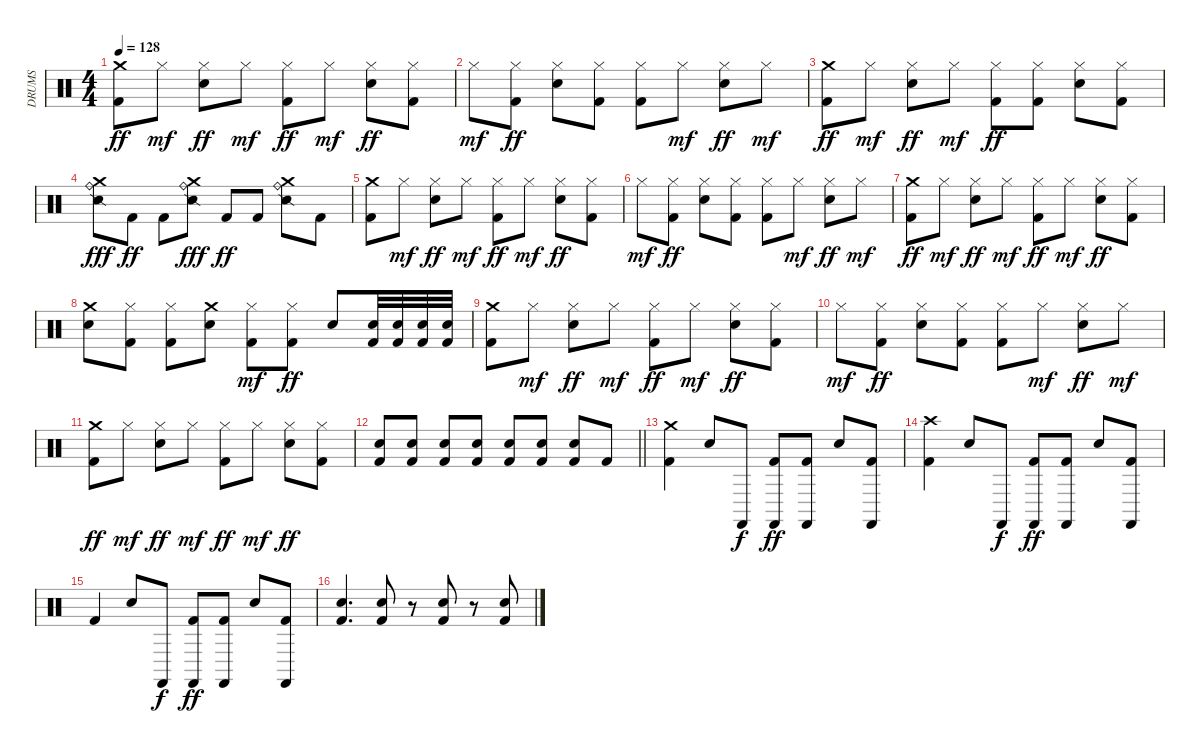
\track ("DRUMS" "DRUMS") {instrument percussion}
\staff {score}
\articulation defaults
\ts (4 4)
\tempo 128
\clef neutral
\ks c
("Crash medium (hit)" "Kick (hit) 2").8{dy ff} "Hi-Hat (closed)".8{dy mf} ("Hi-Hat (closed)" "Snare (hit) 2").8{dy ff} "Hi-Hat (closed)".8{dy mf} ("Hi-Hat (closed)" "Kick (hit) 2").8{dy ff} "Hi-Hat (closed)".8{dy mf} ("Hi-Hat (closed)" "Snare (hit) 2").8{dy ff} ("Hi-Hat (closed)" "Kick (hit) 2").8 |
"Hi-Hat (closed)".8{dy mf} ("Hi-Hat (closed)" "Kick (hit) 2").8{dy ff} ("Hi-Hat (closed)" "Snare (hit) 2").8 ("Hi-Hat (closed)" "Kick (hit) 2").8 ("Hi-Hat (closed)" "Kick (hit) 2").8 "Hi-Hat (closed)".8{dy mf} ("Hi-Hat (closed)" "Snare (hit) 2").8{dy ff} "Hi-Hat (closed)".8{dy mf} |
("Crash medium (hit)" "Kick (hit) 2").8{dy ff} "Hi-Hat (closed)".8{dy mf} ("Hi-Hat (closed)" "Snare (hit) 2").8{dy ff} "Hi-Hat (closed)".8{dy mf} ("Hi-Hat (closed)" "Kick (hit) 2").8{dy ff} ("Hi-Hat (closed)" "Kick (hit) 2").8 ("Hi-Hat (closed)" "Snare (hit) 2").8 ("Hi-Hat (closed)" "Kick (hit) 2").8 |
("Crash medium (hit)" "Ride (bell)" "Snare (side stick) 2").8{dy fff} "Kick (hit) 2".8{dy ff} "Kick (hit) 2".8 ("Crash medium (hit)" "Ride (bell)" "Snare (side stick) 2").8{dy fff} "Kick (hit) 2".8{dy ff} "Kick (hit) 2".8 ("Crash medium (hit)" "Ride (bell)" "Snare (side stick) 2").8 "Kick (hit) 2".8 |
("Crash medium (hit)" "Kick (hit) 2").8 "Hi-Hat (closed)".8{dy mf} ("Hi-Hat (closed)" "Snare (hit) 2").8{dy ff} "Hi-Hat (closed)".8{dy mf} ("Hi-Hat (closed)" "Kick (hit) 2").8{dy ff} "Hi-Hat (closed)".8{dy mf} ("Hi-Hat (closed)" "Snare (hit) 2").8{dy ff} ("Hi-Hat (closed)" "Kick (hit) 2").8 |
"Hi-Hat (closed)".8{dy mf} ("Hi-Hat (closed)" "Kick (hit) 2").8{dy ff} ("Hi-Hat (closed)" "Snare (hit) 2").8 ("Hi-Hat (closed)" "Kick (hit) 2").8 ("Hi-Hat (closed)" "Kick (hit) 2").8 "Hi-Hat (closed)".8{dy mf} ("Hi-Hat (closed)" "Snare (hit) 2").8{dy ff} "Hi-Hat (closed)".8{dy mf} |
("Crash medium (hit)" "Kick (hit) 2").8{dy ff} "Hi-Hat (closed)".8{dy mf} ("Hi-Hat (closed)" "Snare (hit) 2").8{dy ff} "Hi-Hat (closed)".8{dy mf} ("Hi-Hat (closed)" "Kick (hit) 2").8{dy ff} "Hi-Hat (closed)".8{dy mf} ("Hi-Hat (closed)" "Snare (hit) 2").8{dy ff} ("Hi-Hat (closed)" "Kick (hit) 2").8 |
("Crash medium (hit)" "Snare (hit) 2").8 ("Hi-Hat (closed)" "Kick (hit) 2").8 ("Hi-Hat (closed)" "Kick (hit) 2").8 ("Crash medium (hit)" "Snare (hit) 2").8 ("Hi-Hat (closed)" "Kick (hit) 2").8{dy mf} ("Hi-Hat (closed)" "Kick (hit) 2").8{dy ff} "Snare (hit) 2".8 ("Snare (hit) 2" "Kick (hit) 2").32 ("Snare (hit) 2" "Kick (hit) 2").32 ("Snare (hit) 2" "Kick (hit) 2").32 ("Snare (hit) 2" "Kick (hit) 2").32 |
("Crash medium (hit)" "Kick (hit) 2").8 "Hi-Hat (closed)".8{dy mf} ("Hi-Hat (closed)" "Snare (hit) 2").8{dy ff} "Hi-Hat (closed)".8{dy mf} ("Hi-Hat (closed)" "Kick (hit) 2").8{dy ff} "Hi-Hat (closed)".8{dy mf} ("Hi-Hat (closed)" "Snare (hit) 2").8{dy ff} ("Hi-Hat (closed)" "Kick (hit) 2").8 |
"Hi-Hat (closed)".8{dy mf} ("Hi-Hat (closed)" "Kick (hit) 2").8{dy ff} ("Hi-Hat (closed)" "Snare (hit) 2").8 ("Hi-Hat (closed)" "Kick (hit) 2").8 ("Hi-Hat (closed)" "Kick (hit) 2").8 "Hi-Hat (closed)".8{dy mf} ("Hi-Hat (closed)" "Snare (hit) 2").8{dy ff} "Hi-Hat (closed)".8{dy mf} |
("Crash medium (hit)" "Kick (hit) 2").8{dy ff} "Hi-Hat (closed)".8{dy mf} ("Hi-Hat (closed)" "Snare (hit) 2").8{dy ff} "Hi-Hat (closed)".8{dy mf} ("Hi-Hat (closed)" "Kick (hit) 2").8{dy ff} "Hi-Hat (closed)".8{dy mf} ("Hi-Hat (closed)" "Snare (hit) 2").8{dy ff} ("Hi-Hat (closed)" "Kick (hit) 2").8 |
\barLineRight lightlight
("Snare (hit) 2" "Kick (hit) 2").8 ("Snare (hit) 2" "Kick (hit) 2").8 ("Snare (hit) 2" "Kick (hit) 2").8 ("Snare (hit) 2" "Kick (hit) 2").8 ("Snare (hit) 2" "Kick (hit) 2").8 ("Snare (hit) 2" "Kick (hit) 2").8 ("Snare (hit) 2" "Kick (hit) 2").8 "Kick (hit) 2".8 |
("Crash medium (hit)" "Kick (hit) 2").4 "Snare (hit) 2".8 "Castanets (hit)".8{dy f} ("Castanets (hit)" "Kick (hit) 2").8{dy ff} ("Castanets (hit)" "Kick (hit) 2").8 "Snare (hit) 2".8 ("Castanets (hit)" "Kick (hit) 2").8 |
("Crash high (hit)" "Kick (hit) 2").4 "Snare (hit) 2".8 "Castanets (hit)".8{dy f} ("Castanets (hit)" "Kick (hit) 2").8{dy ff} ("Castanets (hit)" "Kick (hit) 2").8 "Snare (hit) 2".8 ("Castanets (hit)" "Kick (hit) 2").8 |
"Kick (hit) 2".4 "Snare (hit) 2".8 "Castanets (hit)".8{dy f} ("Castanets (hit)" "Kick (hit) 2").8{dy ff} ("Castanets (hit)" "Kick (hit) 2").8 "Snare (hit) 2".8 ("Castanets (hit)" "Kick (hit) 2").8 |
("Snare (hit) 2" "Kick (hit) 2").4{d} ("Snare (hit) 2" "Kick (hit) 2").8 r.8 ("Snare (hit) 2" "Kick (hit) 2").8 r.8 ("Snare (hit) 2" "Kick (hit) 2").8
